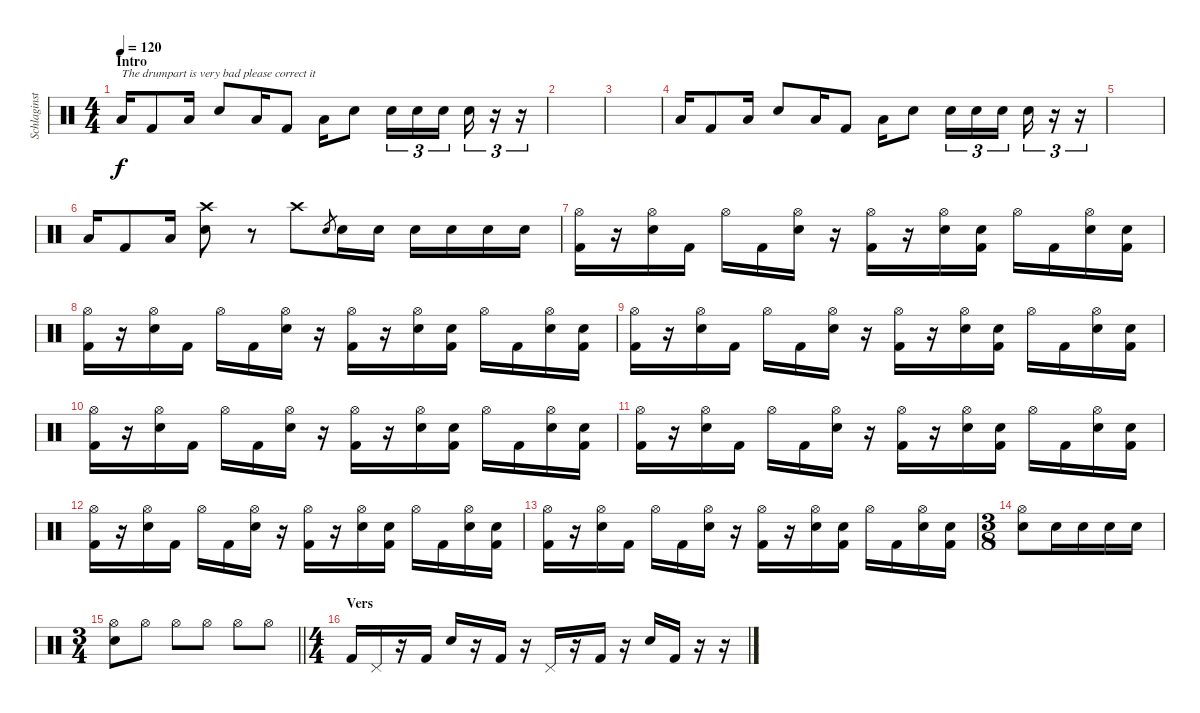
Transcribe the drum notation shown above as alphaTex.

\track ("Schlaginstrumente - Auswahl" "Schlaginst") {instrument percussion}
\staff {score}
\articulation defaults
\ts (4 4)
\section ("" "Intro")
\tempo 120
\clef neutral
\ks c "Low Tom (hit)".16{txt "The drumpart is very bad please correct it" dy f} "Kick (hit) 2".8 "Low Floor Tom (hit)".16 "Snare (hit) 2".8 "Low Tom (hit)".16 "Kick (hit) 2".8 "Low Floor Tom (hit)".16 "Snare (hit) 2".8 "Snare (hit) 2".16{tu (3 2)} "Snare (hit) 2".16{tu (3 2)} "Snare (hit) 2".16{tu (3 2)} "Snare (hit) 2".16{tu (3 2)}
r.16{tu (3 2)} r.16{tu (3 2)} |
|
|
"Low Tom (hit)".16 "Kick (hit) 2".8 "Low Floor Tom (hit)".16 "Snare (hit) 2".8 "Low Tom (hit)".16 "Kick (hit) 2".8 "Low Floor Tom (hit)".16 "Snare (hit) 2".8 "Snare (hit) 2".16{tu (3 2)} "Snare (hit) 2".16{tu (3 2)} "Snare (hit) 2".16{tu (3 2)} "Snare (hit) 2".16{tu (3 2)} r.16{tu (3 2)} r.16{tu (3 2)} |
|
"Low Tom (hit)".16 "Kick (hit) 2".8 "Low Floor Tom (hit)".16 ("Snare (hit) 2" "Crash high (hit)").8 r.8 "Crash high (hit)".8 "Snare (hit) 2".8{gr} "Snare (hit) 2".16 "Snare (hit) 2".16 "Snare (hit) 2".16 "Snare (hit) 2".16 "Snare (hit) 2".16 "Snare (hit) 2".16 |
("Kick (hit) 2" "Hi-Hat (open)").16 r.16 ("Snare (hit) 2" "Hi-Hat (open)").16 "Kick (hit) 2".16 "Hi-Hat (open)".16 "Kick (hit) 2".16 ("Snare (hit) 2" "Hi-Hat (open)").16 r.16 ("Kick (hit) 2" "Hi-Hat (open)").16 r.16 ("Snare (hit) 2" "Hi-Hat (open)").16 ("Snare (hit) 2" "Kick (hit) 2").16 "Hi-Hat (open)".16 "Kick (hit) 2".16 ("Snare (hit) 2" "Hi-Hat (open)").16 ("Snare (hit) 2" "Kick (hit) 2").16 |
("Kick (hit) 2" "Hi-Hat (open)").16 r.16 ("Snare (hit) 2" "Hi-Hat (open)").16 "Kick (hit) 2".16 "Hi-Hat (open)".16 "Kick (hit) 2".16 ("Snare (hit) 2" "Hi-Hat (open)").16 r.16 ("Kick (hit) 2" "Hi-Hat (open)").16 r.16 ("Snare (hit) 2" "Hi-Hat (open)").16 ("Snare (hit) 2" "Kick (hit) 2").16 "Hi-Hat (open)".16 "Kick (hit) 2".16 ("Snare (hit) 2" "Hi-Hat (open)").16 ("Snare (hit) 2" "Kick (hit) 2").16 |
("Kick (hit) 2" "Hi-Hat (open)").16 r.16 ("Snare (hit) 2" "Hi-Hat (open)").16 "Kick (hit) 2".16 "Hi-Hat (open)".16 "Kick (hit) 2".16 ("Snare (hit) 2" "Hi-Hat (open)").16 r.16 ("Kick (hit) 2" "Hi-Hat (open)").16 r.16 ("Snare (hit) 2" "Hi-Hat (open)").16 ("Snare (hit) 2" "Kick (hit) 2").16 "Hi-Hat (open)".16 "Kick (hit) 2".16 ("Snare (hit) 2" "Hi-Hat (open)").16 ("Snare (hit) 2" "Kick (hit) 2").16 |
("Kick (hit) 2" "Hi-Hat (open)").16 r.16 ("Snare (hit) 2" "Hi-Hat (open)").16 "Kick (hit) 2".16 "Hi-Hat (open)".16 "Kick (hit) 2".16 ("Snare (hit) 2" "Hi-Hat (open)").16 r.16 ("Kick (hit) 2" "Hi-Hat (open)").16 r.16 ("Snare (hit) 2" "Hi-Hat (open)").16 ("Snare (hit) 2" "Kick (hit) 2").16 "Hi-Hat (open)".16 "Kick (hit) 2".16 ("Snare (hit) 2" "Hi-Hat (open)").16 ("Snare (hit) 2" "Kick (hit) 2").16 |
("Kick (hit) 2" "Hi-Hat (open)").16 r.16 ("Snare (hit) 2" "Hi-Hat (open)").16 "Kick (hit) 2".16 "Hi-Hat (open)".16 "Kick (hit) 2".16 ("Snare (hit) 2" "Hi-Hat (open)").16 r.16 ("Kick (hit) 2" "Hi-Hat (open)").16 r.16 ("Snare (hit) 2" "Hi-Hat (open)").16 ("Snare (hit) 2" "Kick (hit) 2").16 "Hi-Hat (open)".16 "Kick (hit) 2".16 ("Snare (hit) 2" "Hi-Hat (open)").16 ("Snare (hit) 2" "Kick (hit) 2").16 |
("Kick (hit) 2" "Hi-Hat (open)").16 r.16 ("Snare (hit) 2" "Hi-Hat (open)").16 "Kick (hit) 2".16 "Hi-Hat (open)".16 "Kick (hit) 2".16 ("Snare (hit) 2" "Hi-Hat (open)").16 r.16 ("Kick (hit) 2" "Hi-Hat (open)").16 r.16 ("Snare (hit) 2" "Hi-Hat (open)").16 ("Snare (hit) 2" "Kick (hit) 2").16 "Hi-Hat (open)".16 "Kick (hit) 2".16 ("Snare (hit) 2" "Hi-Hat (open)").16 ("Snare (hit) 2" "Kick (hit) 2").16 |
("Kick (hit) 2" "Hi-Hat (open)").16 r.16 ("Snare (hit) 2" "Hi-Hat (open)").16 "Kick (hit) 2".16 "Hi-Hat (open)".16 "Kick (hit) 2".16 ("Snare (hit) 2" "Hi-Hat (open)").16 r.16 ("Kick (hit) 2" "Hi-Hat (open)").16 r.16 ("Snare (hit) 2" "Hi-Hat (open)").16 ("Snare (hit) 2" "Kick (hit) 2").16 "Hi-Hat (open)".16 "Kick (hit) 2".16 ("Snare (hit) 2" "Hi-Hat (open)").16 ("Snare (hit) 2" "Kick (hit) 2").16 |
\ts (3 8)
("Snare (hit) 2" "Hi-Hat (open)").8 "Snare (hit) 2".16 "Snare (hit) 2".16 "Snare (hit) 2".16 "Snare (hit) 2".16 |
\ts (3 4)
\barLineRight lightlight
("Snare (hit) 2" "Hi-Hat (open)").8 "Hi-Hat (open)".8 "Hi-Hat (open)".8 "Hi-Hat (open)".8 "Hi-Hat (open)".8 "Hi-Hat (open)".8 |
\ts (4 4)
\section ("" "Vers")
"Kick (hit) 2".16 "Pedal Hi-Hat (hit)".16 r.16 "Kick (hit) 2".16 "Snare (hit) 2".16 r.16 "Kick (hit) 2".16 r.16 "Pedal Hi-Hat (hit)".16 r.16 "Kick (hit) 2".16 r.16 "Snare (hit) 2".16 "Kick (hit) 2".16 r.16 r.16
